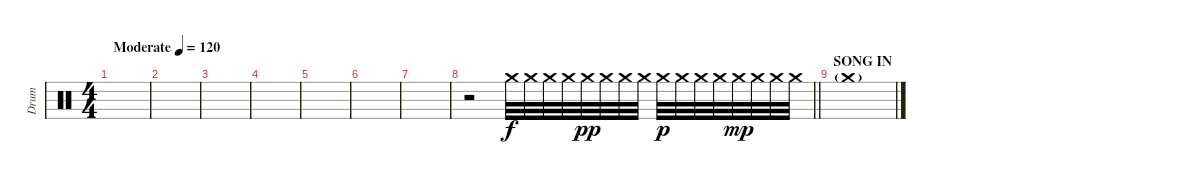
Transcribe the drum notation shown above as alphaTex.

\track ("Drum" "Drum") {instrument percussion}
\staff {score}
\articulation defaults
\ts (4 4)
\tempo (120 "Moderate")
\clef neutral
\ks c
|
|
|
|
|
|
|
\barLineRight lightlight
r.2 "Crash medium (hit)".32 "Crash medium (hit)".32 "Crash medium (hit)".32 "Crash medium (hit)".32 "Crash medium (hit)".32{dy pp} "Crash medium (hit)".32 "Crash medium (hit)".32 "Crash medium (hit)".32 "Crash medium (hit)".32{dy p} "Crash medium (hit)".32 "Crash medium (hit)".32 "Crash medium (hit)".32 "Crash medium (hit)".32{dy mp} "Crash medium (hit)".32 "Crash medium (hit)".32 "Crash medium (hit)".32 |
\section ("" "SONG IN")
"Crash medium (hit)"{g}.1
